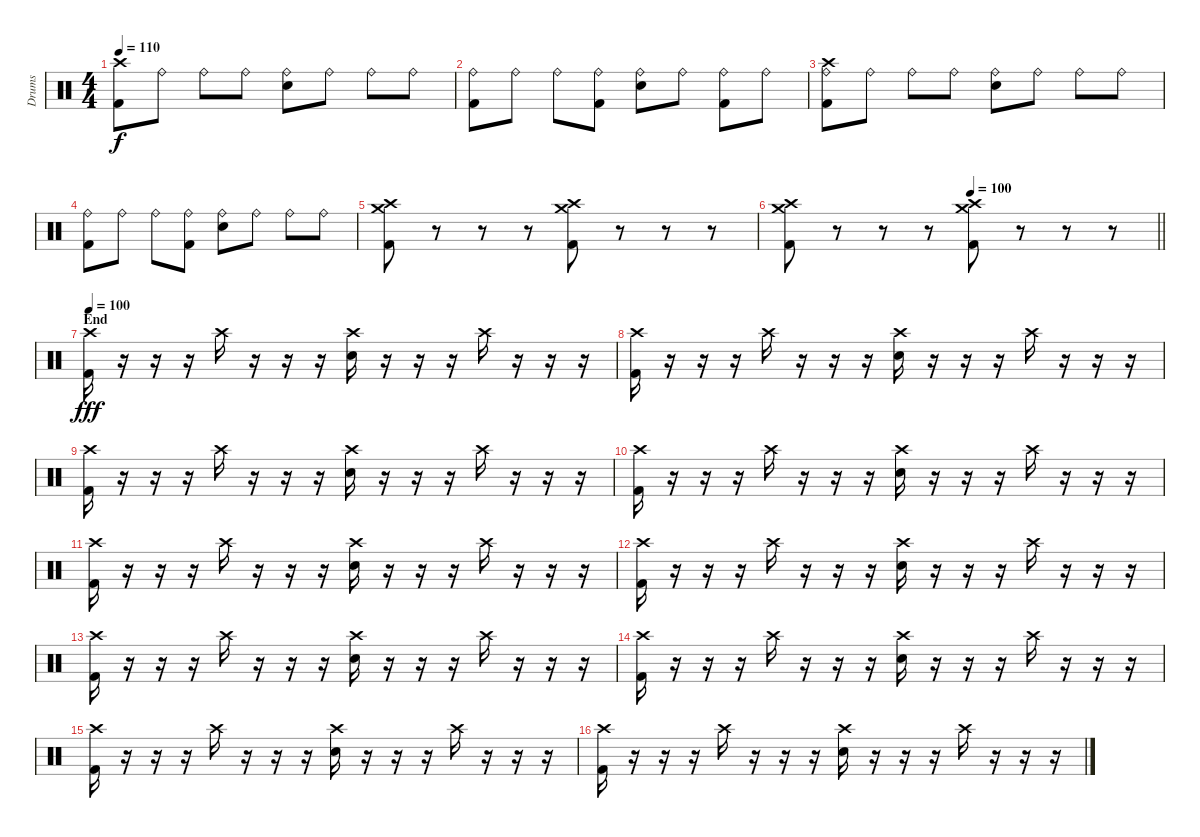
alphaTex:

\track ("Drums" "Drums") {instrument percussion}
\staff {score}
\articulation defaults
\ts (4 4)
\tempo 110
\clef neutral
\ks c
("Crash high (hit)" "Kick (hit) 2").8{dy f} "Ride (bell)".8 "Ride (bell)".8 "Ride (bell)".8 ("Ride (bell)" "Electric Snare (hit)").8 "Ride (bell)".8 "Ride (bell)".8 "Ride (bell)".8 |
("Ride (bell)" "Kick (hit) 2").8 "Ride (bell)".8 "Ride (bell)".8 ("Ride (bell)" "Kick (hit) 2").8 ("Ride (bell)" "Electric Snare (hit)").8 "Ride (bell)".8 ("Ride (bell)" "Kick (hit) 2").8 "Ride (bell)".8 |
("Crash high (hit)" "Ride (bell)" "Kick (hit) 2").8 "Ride (bell)".8 "Ride (bell)".8 "Ride (bell)".8 ("Ride (bell)" "Electric Snare (hit)").8 "Ride (bell)".8 "Ride (bell)".8 "Ride (bell)".8 |
("Ride (bell)" "Kick (hit) 2").8 "Ride (bell)".8 "Ride (bell)".8 ("Ride (bell)" "Kick (hit) 2").8 ("Ride (bell)" "Electric Snare (hit)").8 "Ride (bell)".8 "Ride (bell)".8 "Ride (bell)".8 |
("Crash high (hit)" "Crash medium (hit)" "Kick (hit) 2").8 r.8 r.8 r.8 ("Crash high (hit)" "Crash medium (hit)" "Kick (hit) 2").8 r.8 r.8 r.8 |
\tempo (100 0.5)
\barLineRight lightlight
("Crash high (hit)" "Crash medium (hit)" "Kick (hit) 2").8 r.8 r.8 r.8 ("Crash high (hit)" "Crash medium (hit)" "Kick (hit) 2").8 r.8 r.8 r.8 |
\section ("" "End")
\tempo 100
("Crash high (hit)" "Kick (hit) 2").16{dy fff} r.16 r.16 r.16 "Crash high (hit)".16 r.16 r.16 r.16 ("Crash high (hit)" "Electric Snare (hit)").16 r.16 r.16 r.16 "Crash high (hit)".16 r.16 r.16 r.16 |
("Crash high (hit)" "Kick (hit) 2").16 r.16 r.16 r.16 "Crash high (hit)".16 r.16 r.16 r.16 ("Crash high (hit)" "Electric Snare (hit)").16 r.16 r.16 r.16 "Crash high (hit)".16 r.16 r.16 r.16 |
("Crash high (hit)" "Kick (hit) 2").16 r.16 r.16 r.16 "Crash high (hit)".16 r.16 r.16 r.16 ("Crash high (hit)" "Electric Snare (hit)").16 r.16 r.16 r.16 "Crash high (hit)".16 r.16 r.16 r.16 |
("Crash high (hit)" "Kick (hit) 2").16 r.16 r.16 r.16 "Crash high (hit)".16 r.16 r.16 r.16 ("Crash high (hit)" "Electric Snare (hit)").16 r.16 r.16 r.16 "Crash high (hit)".16 r.16 r.16 r.16 |
("Crash high (hit)" "Kick (hit) 2").16 r.16 r.16 r.16 "Crash high (hit)".16 r.16 r.16 r.16 ("Crash high (hit)" "Electric Snare (hit)").16 r.16 r.16 r.16 "Crash high (hit)".16 r.16 r.16 r.16 |
("Crash high (hit)" "Kick (hit) 2").16 r.16 r.16 r.16 "Crash high (hit)".16 r.16 r.16 r.16 ("Crash high (hit)" "Electric Snare (hit)").16 r.16 r.16 r.16 "Crash high (hit)".16 r.16 r.16 r.16 |
("Crash high (hit)" "Kick (hit) 2").16 r.16 r.16 r.16 "Crash high (hit)".16 r.16 r.16 r.16 ("Crash high (hit)" "Electric Snare (hit)").16 r.16 r.16 r.16 "Crash high (hit)".16 r.16 r.16 r.16 |
("Crash high (hit)" "Kick (hit) 2").16 r.16 r.16 r.16 "Crash high (hit)".16 r.16 r.16 r.16 ("Crash high (hit)" "Electric Snare (hit)").16 r.16 r.16 r.16 "Crash high (hit)".16 r.16 r.16 r.16 |
("Crash high (hit)" "Kick (hit) 2").16 r.16 r.16 r.16 "Crash high (hit)".16 r.16 r.16 r.16 ("Crash high (hit)" "Electric Snare (hit)").16 r.16 r.16 r.16 "Crash high (hit)".16 r.16 r.16 r.16 |
("Crash high (hit)" "Kick (hit) 2").16 r.16 r.16 r.16 "Crash high (hit)".16 r.16 r.16 r.16 ("Crash high (hit)" "Electric Snare (hit)").16 r.16 r.16 r.16 "Crash high (hit)".16 r.16 r.16 r.16
